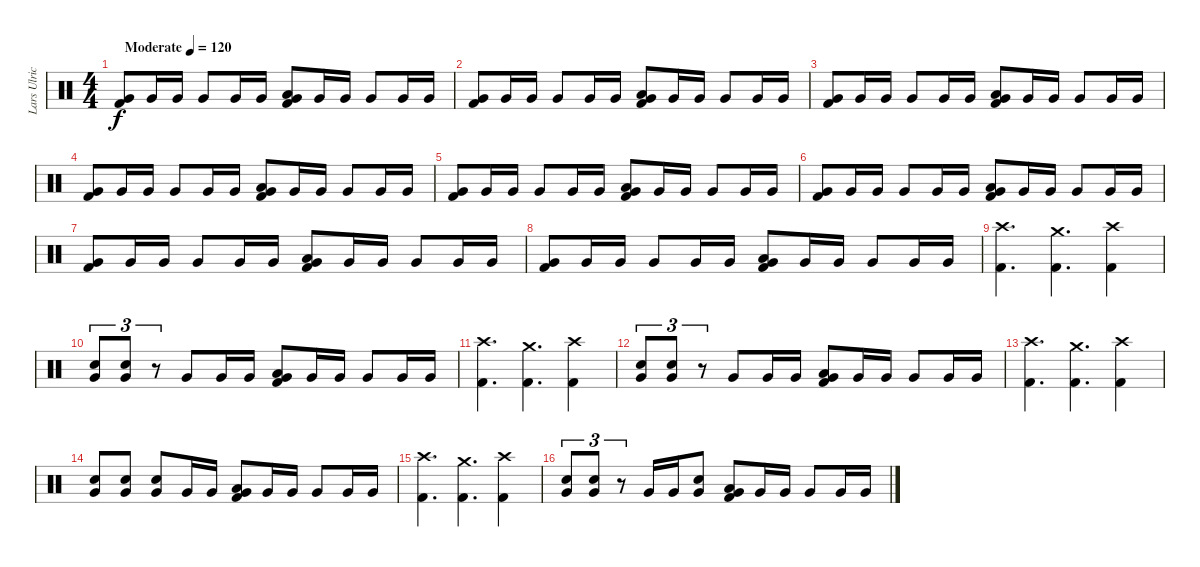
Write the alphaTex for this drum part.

\track ("Lars Ulrich" "Lars Ulric") {instrument percussion}
\staff {score}
\articulation defaults
\ts (4 4)
\section ("" "")
\tempo (120 "Moderate")
\clef neutral
\ks c
("Very Low Tom (hit)" "Kick (hit) 2").8{dy f} "Very Low Tom (hit)".16 "Very Low Tom (hit)".16 "Very Low Tom (hit)".8 "Very Low Tom (hit)".16 "Very Low Tom (hit)".16 ("Low Tom (hit)" "Very Low Tom (hit)" "Kick (hit) 2").8 "Very Low Tom (hit)".16 "Very Low Tom (hit)".16 "Very Low Tom (hit)".8 "Very Low Tom (hit)".16 "Very Low Tom (hit)".16 |
("Very Low Tom (hit)" "Kick (hit) 2").8 "Very Low Tom (hit)".16 "Very Low Tom (hit)".16 "Very Low Tom (hit)".8 "Very Low Tom (hit)".16 "Very Low Tom (hit)".16 ("Low Tom (hit)" "Very Low Tom (hit)" "Kick (hit) 2").8 "Very Low Tom (hit)".16 "Very Low Tom (hit)".16 "Very Low Tom (hit)".8 "Very Low Tom (hit)".16 "Very Low Tom (hit)".16 |
("Very Low Tom (hit)" "Kick (hit) 2").8 "Very Low Tom (hit)".16 "Very Low Tom (hit)".16 "Very Low Tom (hit)".8 "Very Low Tom (hit)".16 "Very Low Tom (hit)".16 ("Low Tom (hit)" "Very Low Tom (hit)" "Kick (hit) 2").8 "Very Low Tom (hit)".16 "Very Low Tom (hit)".16 "Very Low Tom (hit)".8 "Very Low Tom (hit)".16 "Very Low Tom (hit)".16 |
("Very Low Tom (hit)" "Kick (hit) 2").8 "Very Low Tom (hit)".16 "Very Low Tom (hit)".16 "Very Low Tom (hit)".8 "Very Low Tom (hit)".16 "Very Low Tom (hit)".16 ("Low Tom (hit)" "Very Low Tom (hit)" "Kick (hit) 2").8 "Very Low Tom (hit)".16 "Very Low Tom (hit)".16 "Very Low Tom (hit)".8 "Very Low Tom (hit)".16 "Very Low Tom (hit)".16 |
("Very Low Tom (hit)" "Kick (hit) 2").8 "Very Low Tom (hit)".16 "Very Low Tom (hit)".16 "Very Low Tom (hit)".8 "Very Low Tom (hit)".16 "Very Low Tom (hit)".16 ("Low Tom (hit)" "Very Low Tom (hit)" "Kick (hit) 2").8 "Very Low Tom (hit)".16 "Very Low Tom (hit)".16 "Very Low Tom (hit)".8 "Very Low Tom (hit)".16 "Very Low Tom (hit)".16 |
("Very Low Tom (hit)" "Kick (hit) 2").8 "Very Low Tom (hit)".16 "Very Low Tom (hit)".16 "Very Low Tom (hit)".8 "Very Low Tom (hit)".16 "Very Low Tom (hit)".16 ("Low Tom (hit)" "Very Low Tom (hit)" "Kick (hit) 2").8 "Very Low Tom (hit)".16 "Very Low Tom (hit)".16 "Very Low Tom (hit)".8 "Very Low Tom (hit)".16 "Very Low Tom (hit)".16 |
("Very Low Tom (hit)" "Kick (hit) 2").8 "Very Low Tom (hit)".16 "Very Low Tom (hit)".16 "Very Low Tom (hit)".8 "Very Low Tom (hit)".16 "Very Low Tom (hit)".16 ("Low Tom (hit)" "Very Low Tom (hit)" "Kick (hit) 2").8 "Very Low Tom (hit)".16 "Very Low Tom (hit)".16 "Very Low Tom (hit)".8 "Very Low Tom (hit)".16 "Very Low Tom (hit)".16 |
("Very Low Tom (hit)" "Kick (hit) 2").8 "Very Low Tom (hit)".16 "Very Low Tom (hit)".16 "Very Low Tom (hit)".8 "Very Low Tom (hit)".16 "Very Low Tom (hit)".16 ("Low Tom (hit)" "Very Low Tom (hit)" "Kick (hit) 2").8 "Very Low Tom (hit)".16 "Very Low Tom (hit)".16 "Very Low Tom (hit)".8 "Very Low Tom (hit)".16 "Very Low Tom (hit)".16 |
("Crash high (hit)" "Kick (hit) 2").4{d} ("Crash medium (hit)" "Kick (hit) 2").4{d} ("Crash high (hit)" "Kick (hit) 2").4 |
("Very Low Tom (hit)" "Electric Snare (hit)").8{tu (3 2)} ("Very Low Tom (hit)" "Electric Snare (hit)").8{tu (3 2)} r.8{tu (3 2)} "Very Low Tom (hit)".8 "Very Low Tom (hit)".16 "Very Low Tom (hit)".16 ("Low Tom (hit)" "Very Low Tom (hit)" "Kick (hit) 2").8 "Very Low Tom (hit)".16 "Very Low Tom (hit)".16 "Very Low Tom (hit)".8 "Very Low Tom (hit)".16 "Very Low Tom (hit)".16 |
("Crash high (hit)" "Kick (hit) 2").4{d} ("Crash medium (hit)" "Kick (hit) 2").4{d} ("Crash high (hit)" "Kick (hit) 2").4 |
("Very Low Tom (hit)" "Electric Snare (hit)").8{tu (3 2)} ("Very Low Tom (hit)" "Electric Snare (hit)").8{tu (3 2)} r.8{tu (3 2)} "Very Low Tom (hit)".8 "Very Low Tom (hit)".16 "Very Low Tom (hit)".16 ("Low Tom (hit)" "Very Low Tom (hit)" "Kick (hit) 2").8 "Very Low Tom (hit)".16 "Very Low Tom (hit)".16 "Very Low Tom (hit)".8 "Very Low Tom (hit)".16 "Very Low Tom (hit)".16 |
("Crash high (hit)" "Kick (hit) 2").4{d} ("Crash medium (hit)" "Kick (hit) 2").4{d} ("Crash high (hit)" "Kick (hit) 2").4 |
("Very Low Tom (hit)" "Electric Snare (hit)").8 ("Very Low Tom (hit)" "Electric Snare (hit)").8 ("Very Low Tom (hit)" "Electric Snare (hit)").8 "Very Low Tom (hit)".16 "Very Low Tom (hit)".16 ("Low Tom (hit)" "Very Low Tom (hit)" "Kick (hit) 2").8 "Very Low Tom (hit)".16 "Very Low Tom (hit)".16 "Very Low Tom (hit)".8 "Very Low Tom (hit)".16 "Very Low Tom (hit)".16 |
("Crash high (hit)" "Kick (hit) 2").4{d} ("Crash medium (hit)" "Kick (hit) 2").4{d} ("Crash high (hit)" "Kick (hit) 2").4 |
("Very Low Tom (hit)" "Electric Snare (hit)").8{tu (3 2)} ("Very Low Tom (hit)" "Electric Snare (hit)").8{tu (3 2)} r.8{tu (3 2)} "Very Low Tom (hit)".16 "Very Low Tom (hit)".16 ("Very Low Tom (hit)" "Electric Snare (hit)").8 ("Low Tom (hit)" "Very Low Tom (hit)" "Kick (hit) 2").8 "Very Low Tom (hit)".16 "Very Low Tom (hit)".16 "Very Low Tom (hit)".8 "Very Low Tom (hit)".16 "Very Low Tom (hit)".16
